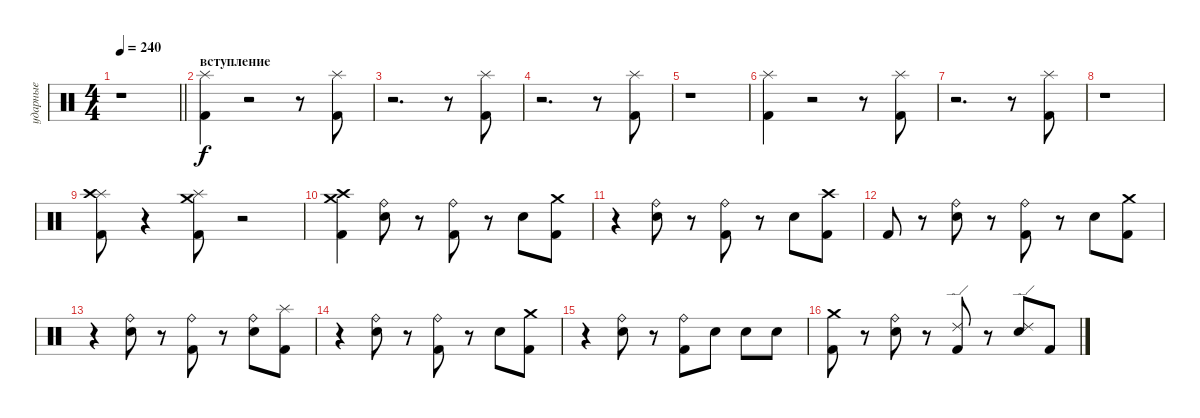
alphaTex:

\track ("ударные" "ударные") {instrument percussion}
\staff {score}
\articulation defaults
\ts (4 4)
\tempo 240
\clef neutral
\barLineRight lightlight
\ks c
r.1{dy f} |
\section ("" "вступление")
("Splash (hit)" "Kick (hit) 2").4 r.2 r.8 ("Splash (hit)" "Kick (hit) 2").8 |
r.2{d} r.8 ("Splash (hit)" "Kick (hit) 2").8 |
r.2{d} r.8 ("Kick (hit) 2" "Splash (hit)").8 |
r.1 |
("Splash (hit)" "Kick (hit) 2").4 r.2 r.8 ("Splash (hit)" "Kick (hit) 2").8 |
r.2{d} r.8 ("Splash (hit)" "Kick (hit) 2").8 |
r.1 |
("Splash (hit)" "Crash high (hit)" "Kick (hit) 2").8 r.4 ("Splash (hit)" "Crash medium (hit)" "Kick (hit) 2").8 r.2 |
("Crash medium (hit)" "Crash high (hit)" "Kick (hit) 2").4 ("Ride (bell)" "Electric Snare (hit)").8 r.8 ("Ride (bell)" "Kick (hit) 2").8 r.8 "Electric Snare (hit)".8 ("Crash medium (hit)" "Kick (hit) 2").8 |
r.4 ("Ride (bell)" "Electric Snare (hit)").8 r.8 ("Ride (bell)" "Kick (hit) 2").8 r.8 "Electric Snare (hit)".8 ("Crash high (hit)" "Kick (hit) 2").8 |
"Kick (hit) 2".8 r.8 ("Ride (bell)" "Electric Snare (hit)").8 r.8 ("Ride (bell)" "Kick (hit) 2").8 r.8 "Electric Snare (hit)".8 ("Crash medium (hit)" "Kick (hit) 2").8 |
r.4 ("Ride (bell)" "Electric Snare (hit)").8 r.8 ("Ride (bell)" "Kick (hit) 2").8 r.8 ("Ride (bell)" "Electric Snare (hit)").8 ("Splash (hit)" "Kick (hit) 2").8 |
r.4 ("Ride (bell)" "Electric Snare (hit)").8 r.8 ("Ride (bell)" "Kick (hit) 2").8 r.8 "Electric Snare (hit)".8 ("Crash medium (hit)" "Kick (hit) 2").8 |
r.4 ("Ride (bell)" "Electric Snare (hit)").8 r.8 ("Ride (bell)" "Kick (hit) 2").8 "Snare (hit) 2".8 "Snare (hit) 2".8 "Snare (hit) 2".8 |
("Crash medium (hit)" "Kick (hit) 2").8 r.8 ("Ride (bell)" "Electric Snare (hit)").8 r.8 ("Ride (edge) 2" "Kick (hit) 2").8 r.8 ("Ride (edge) 2" "Electric Snare (hit)").8 "Kick (hit) 2".8
